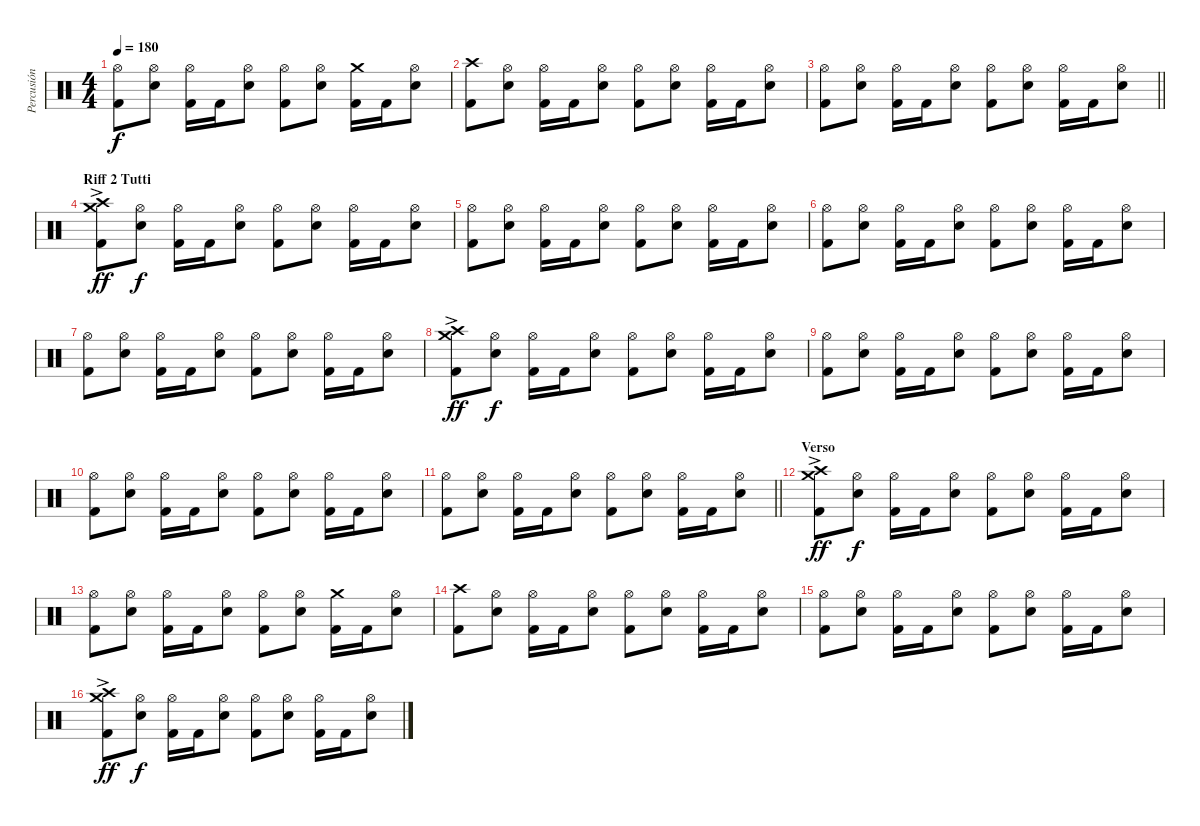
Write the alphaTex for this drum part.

\track ("Percusión" "Percusión") {instrument percussion}
\staff {score}
\articulation defaults
\ts (4 4)
\tempo 180
\clef neutral
\ks c
("Hi-Hat (open)" "Kick (hit) 2").8{dy f} ("Hi-Hat (open)" "Snare (hit) 2").8 ("Hi-Hat (open)" "Kick (hit) 2").16 "Kick (hit) 2".16 ("Hi-Hat (open)" "Snare (hit) 2").8 ("Hi-Hat (open)" "Kick (hit) 2").8 ("Hi-Hat (open)" "Snare (hit) 2").8 ("Crash medium (hit)" "Kick (hit) 2").16 "Kick (hit) 2".16 ("Hi-Hat (open)" "Snare (hit) 2").8 |
("Crash high (hit)" "Kick (hit) 2").8 ("Hi-Hat (open)" "Snare (hit) 2").8 ("Hi-Hat (open)" "Kick (hit) 2").16 "Kick (hit) 2".16 ("Hi-Hat (open)" "Snare (hit) 2").8 ("Hi-Hat (open)" "Kick (hit) 2").8 ("Hi-Hat (open)" "Snare (hit) 2").8 ("Hi-Hat (open)" "Kick (hit) 2").16 "Kick (hit) 2".16 ("Hi-Hat (open)" "Snare (hit) 2").8 |
\barLineRight lightlight
("Hi-Hat (open)" "Kick (hit) 2").8 ("Hi-Hat (open)" "Snare (hit) 2").8 ("Hi-Hat (open)" "Kick (hit) 2").16 "Kick (hit) 2".16 ("Hi-Hat (open)" "Snare (hit) 2").8 ("Hi-Hat (open)" "Kick (hit) 2").8 ("Hi-Hat (open)" "Snare (hit) 2").8 ("Hi-Hat (open)" "Kick (hit) 2").16 "Kick (hit) 2".16 ("Hi-Hat (open)" "Snare (hit) 2").8 |
\section ("" "Riff 2 Tutti")
("Crash medium (hit)"{ac} "Crash high (hit)" "Kick (hit) 2").8{dy ff} ("Hi-Hat (open)" "Snare (hit) 2").8{dy f} ("Hi-Hat (open)" "Kick (hit) 2").16 "Kick (hit) 2".16 ("Hi-Hat (open)" "Snare (hit) 2").8 ("Hi-Hat (open)" "Kick (hit) 2").8 ("Hi-Hat (open)" "Snare (hit) 2").8 ("Hi-Hat (open)" "Kick (hit) 2").16 "Kick (hit) 2".16 ("Hi-Hat (open)" "Snare (hit) 2").8 |
("Hi-Hat (open)" "Kick (hit) 2").8 ("Hi-Hat (open)" "Snare (hit) 2").8 ("Hi-Hat (open)" "Kick (hit) 2").16 "Kick (hit) 2".16 ("Hi-Hat (open)" "Snare (hit) 2").8 ("Hi-Hat (open)" "Kick (hit) 2").8 ("Hi-Hat (open)" "Snare (hit) 2").8 ("Hi-Hat (open)" "Kick (hit) 2").16 "Kick (hit) 2".16 ("Hi-Hat (open)" "Snare (hit) 2").8 |
("Hi-Hat (open)" "Kick (hit) 2").8 ("Hi-Hat (open)" "Snare (hit) 2").8 ("Hi-Hat (open)" "Kick (hit) 2").16 "Kick (hit) 2".16 ("Hi-Hat (open)" "Snare (hit) 2").8 ("Hi-Hat (open)" "Kick (hit) 2").8 ("Hi-Hat (open)" "Snare (hit) 2").8 ("Hi-Hat (open)" "Kick (hit) 2").16 "Kick (hit) 2".16 ("Hi-Hat (open)" "Snare (hit) 2").8 |
("Hi-Hat (open)" "Kick (hit) 2").8 ("Hi-Hat (open)" "Snare (hit) 2").8 ("Hi-Hat (open)" "Kick (hit) 2").16 "Kick (hit) 2".16 ("Hi-Hat (open)" "Snare (hit) 2").8 ("Hi-Hat (open)" "Kick (hit) 2").8 ("Hi-Hat (open)" "Snare (hit) 2").8 ("Hi-Hat (open)" "Kick (hit) 2").16 "Kick (hit) 2".16 ("Hi-Hat (open)" "Snare (hit) 2").8 |
("Crash medium (hit)"{ac} "Crash high (hit)" "Kick (hit) 2").8{dy ff} ("Hi-Hat (open)" "Snare (hit) 2").8{dy f} ("Hi-Hat (open)" "Kick (hit) 2").16 "Kick (hit) 2".16 ("Hi-Hat (open)" "Snare (hit) 2").8 ("Hi-Hat (open)" "Kick (hit) 2").8 ("Hi-Hat (open)" "Snare (hit) 2").8 ("Hi-Hat (open)" "Kick (hit) 2").16 "Kick (hit) 2".16 ("Hi-Hat (open)" "Snare (hit) 2").8 |
("Hi-Hat (open)" "Kick (hit) 2").8 ("Hi-Hat (open)" "Snare (hit) 2").8 ("Hi-Hat (open)" "Kick (hit) 2").16 "Kick (hit) 2".16 ("Hi-Hat (open)" "Snare (hit) 2").8 ("Hi-Hat (open)" "Kick (hit) 2").8 ("Hi-Hat (open)" "Snare (hit) 2").8 ("Hi-Hat (open)" "Kick (hit) 2").16 "Kick (hit) 2".16 ("Hi-Hat (open)" "Snare (hit) 2").8 |
("Hi-Hat (open)" "Kick (hit) 2").8 ("Hi-Hat (open)" "Snare (hit) 2").8 ("Hi-Hat (open)" "Kick (hit) 2").16 "Kick (hit) 2".16 ("Hi-Hat (open)" "Snare (hit) 2").8 ("Hi-Hat (open)" "Kick (hit) 2").8 ("Hi-Hat (open)" "Snare (hit) 2").8 ("Hi-Hat (open)" "Kick (hit) 2").16 "Kick (hit) 2".16 ("Hi-Hat (open)" "Snare (hit) 2").8 |
\barLineRight lightlight
("Hi-Hat (open)" "Kick (hit) 2").8 ("Hi-Hat (open)" "Snare (hit) 2").8 ("Hi-Hat (open)" "Kick (hit) 2").16 "Kick (hit) 2".16 ("Hi-Hat (open)" "Snare (hit) 2").8 ("Hi-Hat (open)" "Kick (hit) 2").8 ("Hi-Hat (open)" "Snare (hit) 2").8 ("Hi-Hat (open)" "Kick (hit) 2").16 "Kick (hit) 2".16 ("Hi-Hat (open)" "Snare (hit) 2").8 |
\section ("" "Verso")
("Crash medium (hit)"{ac} "Crash high (hit)" "Kick (hit) 2").8{dy ff} ("Hi-Hat (open)" "Snare (hit) 2").8{dy f} ("Hi-Hat (open)" "Kick (hit) 2").16 "Kick (hit) 2".16 ("Hi-Hat (open)" "Snare (hit) 2").8 ("Hi-Hat (open)" "Kick (hit) 2").8 ("Hi-Hat (open)" "Snare (hit) 2").8 ("Hi-Hat (open)" "Kick (hit) 2").16 "Kick (hit) 2".16 ("Hi-Hat (open)" "Snare (hit) 2").8 |
("Hi-Hat (open)" "Kick (hit) 2").8 ("Hi-Hat (open)" "Snare (hit) 2").8 ("Hi-Hat (open)" "Kick (hit) 2").16 "Kick (hit) 2".16 ("Hi-Hat (open)" "Snare (hit) 2").8 ("Hi-Hat (open)" "Kick (hit) 2").8 ("Hi-Hat (open)" "Snare (hit) 2").8 ("Crash medium (hit)" "Kick (hit) 2").16 "Kick (hit) 2".16 ("Hi-Hat (open)" "Snare (hit) 2").8 |
("Crash high (hit)" "Kick (hit) 2").8 ("Hi-Hat (open)" "Snare (hit) 2").8 ("Hi-Hat (open)" "Kick (hit) 2").16 "Kick (hit) 2".16 ("Hi-Hat (open)" "Snare (hit) 2").8 ("Hi-Hat (open)" "Kick (hit) 2").8 ("Hi-Hat (open)" "Snare (hit) 2").8 ("Hi-Hat (open)" "Kick (hit) 2").16 "Kick (hit) 2".16 ("Hi-Hat (open)" "Snare (hit) 2").8 |
("Hi-Hat (open)" "Kick (hit) 2").8 ("Hi-Hat (open)" "Snare (hit) 2").8 ("Hi-Hat (open)" "Kick (hit) 2").16 "Kick (hit) 2".16 ("Hi-Hat (open)" "Snare (hit) 2").8 ("Hi-Hat (open)" "Kick (hit) 2").8 ("Hi-Hat (open)" "Snare (hit) 2").8 ("Hi-Hat (open)" "Kick (hit) 2").16 "Kick (hit) 2".16 ("Hi-Hat (open)" "Snare (hit) 2").8 |
("Crash medium (hit)"{ac} "Crash high (hit)" "Kick (hit) 2").8{dy ff} ("Hi-Hat (open)" "Snare (hit) 2").8{dy f} ("Hi-Hat (open)" "Kick (hit) 2").16 "Kick (hit) 2".16 ("Hi-Hat (open)" "Snare (hit) 2").8 ("Hi-Hat (open)" "Kick (hit) 2").8 ("Hi-Hat (open)" "Snare (hit) 2").8 ("Hi-Hat (open)" "Kick (hit) 2").16 "Kick (hit) 2".16 ("Hi-Hat (open)" "Snare (hit) 2").8
